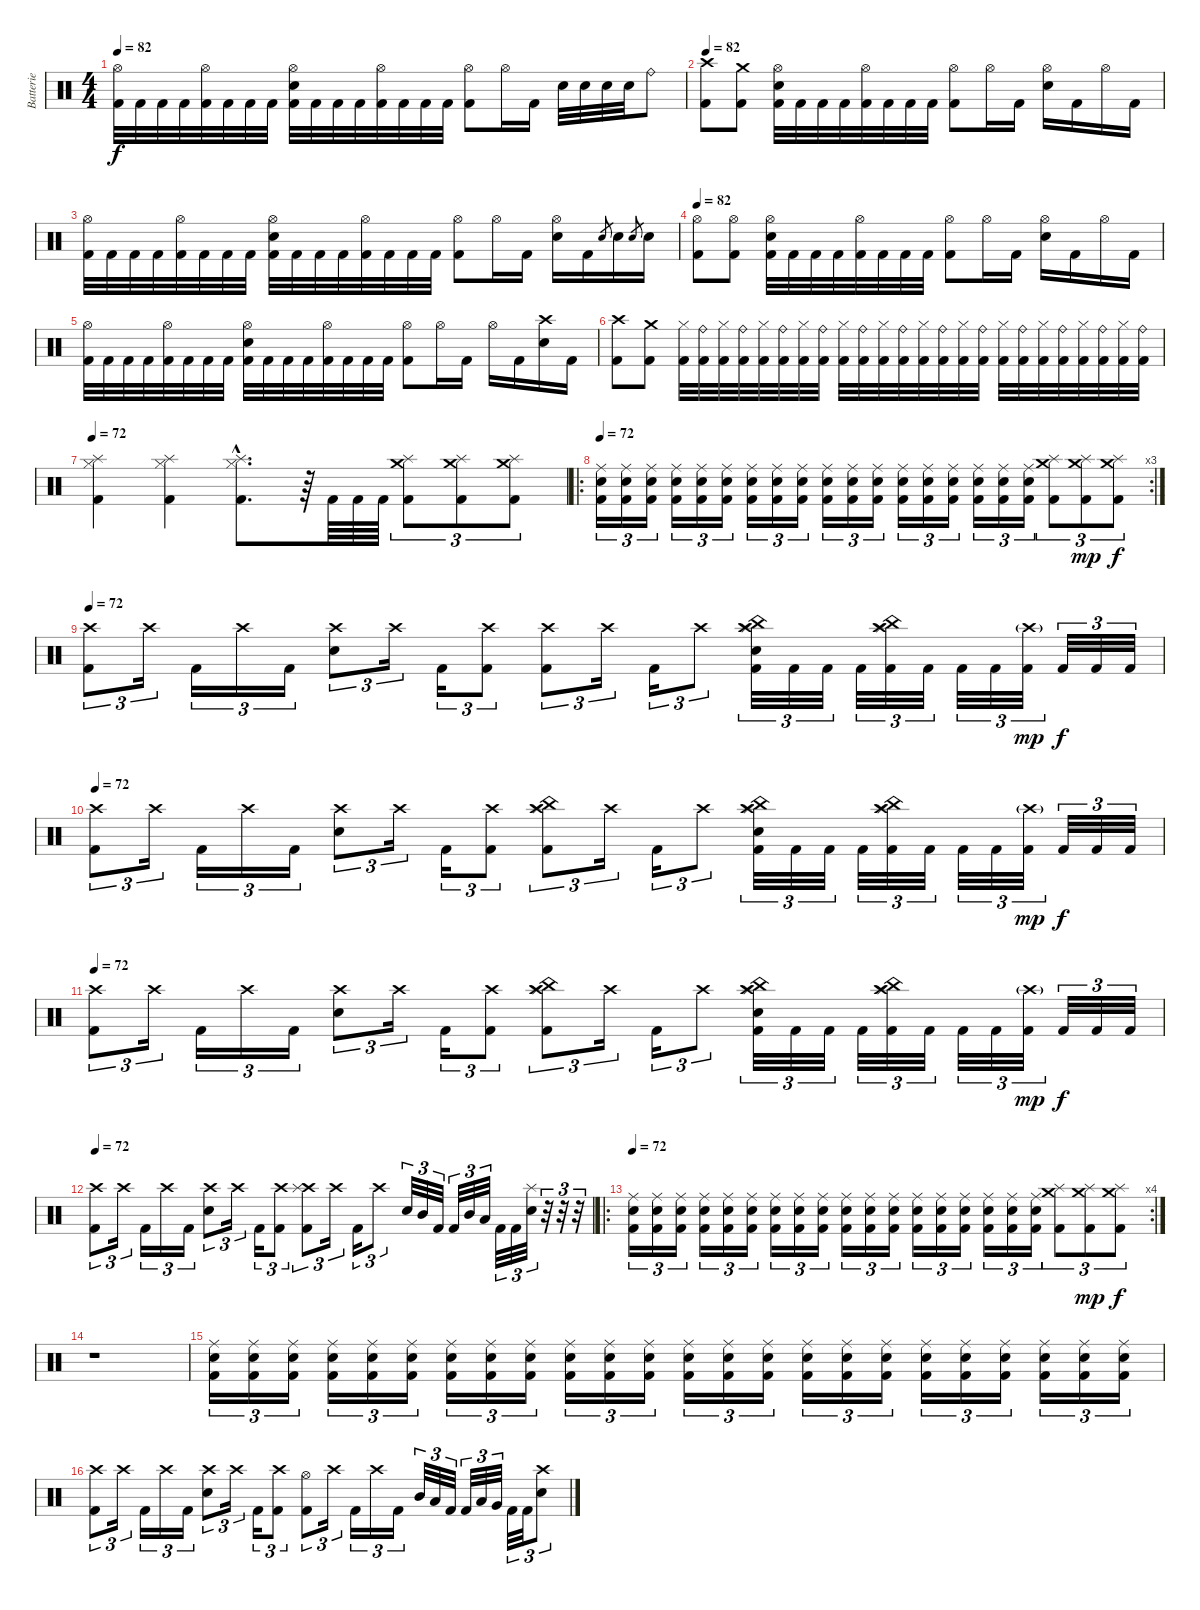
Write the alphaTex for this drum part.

\track ("Batterie" "Batterie") {instrument percussion}
\staff {score}
\articulation defaults
\ts (4 4)
\tempo 82
\clef neutral
\ks c
("Hi-Hat (open)" "Kick (hit) 2").32{dy f} "Kick (hit) 2".32 "Kick (hit) 2".32 "Kick (hit) 2".32 ("Hi-Hat (open)" "Kick (hit) 2").32 "Kick (hit) 2".32 "Kick (hit) 2".32 "Kick (hit) 2".32 ("Electric Snare (hit)" "Hi-Hat (open)" "Kick (hit) 2").32 "Kick (hit) 2".32 "Kick (hit) 2".32 "Kick (hit) 2".32 ("Hi-Hat (open)" "Kick (hit) 2").32 "Kick (hit) 2".32 "Kick (hit) 2".32 "Kick (hit) 2".32 ("Hi-Hat (open)" "Kick (hit) 2").8 "Hi-Hat (open)".16 "Kick (hit) 2".16 "Electric Snare (hit)".32 "Electric Snare (hit)".32 "Electric Snare (hit)".32 "Electric Snare (hit)".32 "Ride (bell)".8 |
\tempo 82
("Crash high (hit)" "Kick (hit) 2").8 ("Crash medium (hit)" "Kick (hit) 2").8 ("Hi-Hat (open)" "Electric Snare (hit)" "Kick (hit) 2").32 "Kick (hit) 2".32 "Kick (hit) 2".32 "Kick (hit) 2".32 ("Hi-Hat (open)" "Kick (hit) 2").32 "Kick (hit) 2".32 "Kick (hit) 2".32 "Kick (hit) 2".32 ("Hi-Hat (open)" "Kick (hit) 2").8 "Hi-Hat (open)".16 "Kick (hit) 2".16 ("Hi-Hat (open)" "Electric Snare (hit)").16 "Kick (hit) 2".16 "Hi-Hat (open)".16 "Kick (hit) 2".16 |
("Hi-Hat (open)" "Kick (hit) 2").32 "Kick (hit) 2".32 "Kick (hit) 2".32 "Kick (hit) 2".32 ("Hi-Hat (open)" "Kick (hit) 2").32 "Kick (hit) 2".32 "Kick (hit) 2".32 "Kick (hit) 2".32 ("Electric Snare (hit)" "Hi-Hat (open)" "Kick (hit) 2").32 "Kick (hit) 2".32 "Kick (hit) 2".32 "Kick (hit) 2".32 ("Hi-Hat (open)" "Kick (hit) 2").32 "Kick (hit) 2".32 "Kick (hit) 2".32 "Kick (hit) 2".32 ("Hi-Hat (open)" "Kick (hit) 2").8 "Hi-Hat (open)".16 "Kick (hit) 2".16 ("Hi-Hat (open)" "Electric Snare (hit)").16 "Kick (hit) 2".16 "Electric Snare (hit)".8{gr} "Electric Snare (hit)".16 "Electric Snare (hit)".8{gr} "Electric Snare (hit)".16 |
\tempo 82
("Hi-Hat (open)" "Kick (hit) 2").8 ("Hi-Hat (open)" "Kick (hit) 2").8 ("Hi-Hat (open)" "Electric Snare (hit)" "Kick (hit) 2").32 "Kick (hit) 2".32 "Kick (hit) 2".32 "Kick (hit) 2".32 ("Hi-Hat (open)" "Kick (hit) 2").32 "Kick (hit) 2".32 "Kick (hit) 2".32 "Kick (hit) 2".32 ("Hi-Hat (open)" "Kick (hit) 2").8 "Hi-Hat (open)".16 "Kick (hit) 2".16 ("Hi-Hat (open)" "Electric Snare (hit)").16 "Kick (hit) 2".16 "Hi-Hat (open)".16 "Kick (hit) 2".16 |
("Hi-Hat (open)" "Kick (hit) 2").32 "Kick (hit) 2".32 "Kick (hit) 2".32 "Kick (hit) 2".32 ("Hi-Hat (open)" "Kick (hit) 2").32 "Kick (hit) 2".32 "Kick (hit) 2".32 "Kick (hit) 2".32 ("Electric Snare (hit)" "Hi-Hat (open)" "Kick (hit) 2").32 "Kick (hit) 2".32 "Kick (hit) 2".32 "Kick (hit) 2".32 ("Hi-Hat (open)" "Kick (hit) 2").32 "Kick (hit) 2".32 "Kick (hit) 2".32 "Kick (hit) 2".32 ("Hi-Hat (open)" "Kick (hit) 2").8 "Hi-Hat (open)".16 "Kick (hit) 2".16 "Hi-Hat (open)".16 "Kick (hit) 2".16 ("Crash high (hit)" "Electric Snare (hit)").16 "Kick (hit) 2".16 |
("Crash high (hit)" "Kick (hit) 2").8 ("Crash medium (hit)" "Kick (hit) 2").8 ("Hi-Hat (closed)" "Kick (hit) 2").32 ("Ride (bell)" "Kick (hit) 2").32 ("Hi-Hat (closed)" "Kick (hit) 2").32 ("Ride (bell)" "Kick (hit) 2").32 ("Hi-Hat (closed)" "Kick (hit) 2").32 ("Ride (bell)" "Kick (hit) 2").32 ("Hi-Hat (closed)" "Kick (hit) 2").32 ("Ride (bell)" "Kick (hit) 2").32 ("Hi-Hat (closed)" "Kick (hit) 2").32 ("Ride (bell)" "Kick (hit) 2").32 ("Hi-Hat (closed)" "Kick (hit) 2").32 ("Ride (bell)" "Kick (hit) 2").32 ("Hi-Hat (closed)" "Kick (hit) 2").32 ("Ride (bell)" "Kick (hit) 2").32 ("Hi-Hat (closed)" "Kick (hit) 2").32 ("Ride (bell)" "Kick (hit) 2").32 ("Hi-Hat (closed)" "Kick (hit) 2").32 ("Ride (bell)" "Kick (hit) 2").32 ("Hi-Hat (closed)" "Kick (hit) 2").32 ("Ride (bell)" "Kick (hit) 2").32 ("Hi-Hat (closed)" "Kick (hit) 2").32 ("Ride (bell)" "Kick (hit) 2").32 ("Hi-Hat (closed)" "Kick (hit) 2").32 ("Ride (bell)" "Kick (hit) 2").32 |
\tempo 72
("Splash (hit)" "Hi-Hat (closed)" "Kick (hit) 2").4 ("Splash (hit)" "Hi-Hat (closed)" "Kick (hit) 2").4 ("Splash (hit)"{hac} "Hi-Hat (closed)"{hac} "Kick (hit) 2"{hac}).8{d} r.64 "Kick (hit) 2".64 "Kick (hit) 2".64 "Kick (hit) 2".64 ("Crash medium (hit)" "Splash (hit)" "Kick (hit) 2").8{tu (3 2)} ("Crash medium (hit)" "Splash (hit)" "Kick (hit) 2").8{tu (3 2)} ("Crash medium (hit)" "Splash (hit)" "Kick (hit) 2").8{tu (3 2)} |
\ro
\rc 3
\tempo 72
("Kick (hit) 2" "Ride (middle)" "Electric Snare (hit)").16{tu (3 2)} ("Kick (hit) 2" "Ride (middle)" "Electric Snare (hit)").16{tu (3 2)} ("Kick (hit) 2" "Ride (middle)" "Electric Snare (hit)").16{tu (3 2)} ("Kick (hit) 2" "Ride (middle)" "Electric Snare (hit)").16{tu (3 2)} ("Kick (hit) 2" "Ride (middle)" "Electric Snare (hit)").16{tu (3 2)} ("Kick (hit) 2" "Ride (middle)" "Electric Snare (hit)").16{tu (3 2)} ("Kick (hit) 2" "Ride (middle)" "Electric Snare (hit)").16{tu (3 2)} ("Kick (hit) 2" "Ride (middle)" "Electric Snare (hit)").16{tu (3 2)} ("Kick (hit) 2" "Ride (middle)" "Electric Snare (hit)").16{tu (3 2)} ("Kick (hit) 2" "Ride (middle)" "Electric Snare (hit)").16{tu (3 2)} ("Kick (hit) 2" "Ride (middle)" "Electric Snare (hit)").16{tu (3 2)} ("Kick (hit) 2" "Ride (middle)" "Electric Snare (hit)").16{tu (3 2)} ("Kick (hit) 2" "Ride (middle)" "Electric Snare (hit)").16{tu (3 2)} ("Kick (hit) 2" "Ride (middle)" "Electric Snare (hit)").16{tu (3 2)} ("Kick (hit) 2" "Ride (middle)" "Electric Snare (hit)").16{tu (3 2)} ("Kick (hit) 2" "Ride (middle)" "Electric Snare (hit)").16{tu (3 2)} ("Kick (hit) 2" "Ride (middle)" "Electric Snare (hit)").16{tu (3 2)} ("Kick (hit) 2" "Ride (middle)" "Electric Snare (hit)").16{tu (3 2)} ("Splash (hit)" "Crash medium (hit)" "Kick (hit) 2").8{tu (3 2)} ("Splash (hit)" "Crash medium (hit)" "Kick (hit) 2").8{tu (3 2) dy mp} ("Splash (hit)" "Crash medium (hit)" "Kick (hit) 2").8{tu (3 2) dy f} |
\tempo 72
("Crash high (hit)" "Kick (hit) 2").8{tu (3 2)} "Crash high (hit)".16{tu (3 2)} "Kick (hit) 2".16{tu (3 2)} "Crash high (hit)".16{tu (3 2)} "Kick (hit) 2".16{tu (3 2)} ("Crash high (hit)" "Electric Snare (hit)").8{tu (3 2)} "Crash high (hit)".16{tu (3 2)} "Kick (hit) 2".16{tu (3 2)} ("Crash high (hit)" "Kick (hit) 2").8{tu (3 2)} ("Crash high (hit)" "Kick (hit) 2").8{tu (3 2)} "Crash high (hit)".16{tu (3 2)} "Kick (hit) 2".16{tu (3 2)} "Crash high (hit)".8{tu (3 2)} ("China (hit)" "Crash high (hit)" "Splash (hit)" "Electric Snare (hit)" "Kick (hit) 2").32{tu (3 2)} "Kick (hit) 2".32{tu (3 2)} "Kick (hit) 2".32{tu (3 2)} "Kick (hit) 2".32{tu (3 2)} ("China (hit)" "Crash high (hit)" "Splash (hit)" "Kick (hit) 2").32{tu (3 2)} "Kick (hit) 2".32{tu (3 2)} "Kick (hit) 2".32{tu (3 2)} "Kick (hit) 2".32{tu (3 2)} ("Crash high (hit)"{g} "Kick (hit) 2").32{tu (3 2) dy mp} "Kick (hit) 2".32{tu (3 2) dy f} "Kick (hit) 2".32{tu (3 2)} "Kick (hit) 2".32{tu (3 2)} |
\tempo 72
("Crash high (hit)" "Kick (hit) 2").8{tu (3 2)} "Crash high (hit)".16{tu (3 2)} "Kick (hit) 2".16{tu (3 2)} "Crash high (hit)".16{tu (3 2)} "Kick (hit) 2".16{tu (3 2)} ("Crash high (hit)" "Electric Snare (hit)").8{tu (3 2)} "Crash high (hit)".16{tu (3 2)} "Kick (hit) 2".16{tu (3 2)} ("Crash high (hit)" "Kick (hit) 2").8{tu (3 2)} ("China (hit)" "Crash high (hit)" "Splash (hit)" "Kick (hit) 2").8{tu (3 2)} "Crash high (hit)".16{tu (3 2)} "Kick (hit) 2".16{tu (3 2)} "Crash high (hit)".8{tu (3 2)} ("China (hit)" "Crash high (hit)" "Splash (hit)" "Electric Snare (hit)" "Kick (hit) 2").32{tu (3 2)} "Kick (hit) 2".32{tu (3 2)} "Kick (hit) 2".32{tu (3 2)} "Kick (hit) 2".32{tu (3 2)} ("China (hit)" "Crash high (hit)" "Splash (hit)" "Kick (hit) 2").32{tu (3 2)} "Kick (hit) 2".32{tu (3 2)} "Kick (hit) 2".32{tu (3 2)} "Kick (hit) 2".32{tu (3 2)} ("Crash high (hit)"{g} "Kick (hit) 2").32{tu (3 2) dy mp} "Kick (hit) 2".32{tu (3 2) dy f} "Kick (hit) 2".32{tu (3 2)} "Kick (hit) 2".32{tu (3 2)} |
\tempo 72
("Crash high (hit)" "Kick (hit) 2").8{tu (3 2)} "Crash high (hit)".16{tu (3 2)} "Kick (hit) 2".16{tu (3 2)} "Crash high (hit)".16{tu (3 2)} "Kick (hit) 2".16{tu (3 2)} ("Crash high (hit)" "Electric Snare (hit)").8{tu (3 2)} "Crash high (hit)".16{tu (3 2)} "Kick (hit) 2".16{tu (3 2)} ("Crash high (hit)" "Kick (hit) 2").8{tu (3 2)} ("China (hit)" "Crash high (hit)" "Splash (hit)" "Kick (hit) 2").8{tu (3 2)} "Crash high (hit)".16{tu (3 2)} "Kick (hit) 2".16{tu (3 2)} "Crash high (hit)".8{tu (3 2)} ("China (hit)" "Crash high (hit)" "Splash (hit)" "Electric Snare (hit)" "Kick (hit) 2").32{tu (3 2)} "Kick (hit) 2".32{tu (3 2)} "Kick (hit) 2".32{tu (3 2)} "Kick (hit) 2".32{tu (3 2)} ("China (hit)" "Crash high (hit)" "Splash (hit)" "Kick (hit) 2").32{tu (3 2)} "Kick (hit) 2".32{tu (3 2)} "Kick (hit) 2".32{tu (3 2)} "Kick (hit) 2".32{tu (3 2)} ("Crash high (hit)"{g} "Kick (hit) 2").32{tu (3 2) dy mp} "Kick (hit) 2".32{tu (3 2) dy f} "Kick (hit) 2".32{tu (3 2)} "Kick (hit) 2".32{tu (3 2)} |
\tempo 72
("Crash high (hit)" "Kick (hit) 2").8{tu (3 2)} "Crash high (hit)".16{tu (3 2)} "Kick (hit) 2".16{tu (3 2)} "Crash high (hit)".16{tu (3 2)} "Kick (hit) 2".16{tu (3 2)} ("Crash high (hit)" "Electric Snare (hit)").8{tu (3 2)} "Crash high (hit)".16{tu (3 2)} "Kick (hit) 2".16{tu (3 2)} ("Crash high (hit)" "Kick (hit) 2").8{tu (3 2)} ("Crash high (hit)" "Splash (hit)" "Kick (hit) 2").8{tu (3 2)} "Crash high (hit)".16{tu (3 2)} "Kick (hit) 2".16{tu (3 2)} "Crash high (hit)".8{tu (3 2)} "Electric Snare (hit)".32{tu (3 2)} "Mid Tom (hit)".32{tu (3 2)} "Kick (hit) 2".32{tu (3 2)} "Kick (hit) 2".32{tu (3 2)} "Mid Tom (hit)".32{tu (3 2)} "Low Tom (hit)".32{tu (3 2)} "Kick (hit) 2".32{tu (3 2)} "Kick (hit) 2".32{tu (3 2)} ("Splash (hit)" "Electric Snare (hit)").32{tu (3 2)} r.32{tu (3 2)} r.32{tu (3 2)} r.32{tu (3 2)} |
\ro
\rc 4
\tempo 72
("Kick (hit) 2" "Ride (middle)" "Electric Snare (hit)").16{tu (3 2)} ("Kick (hit) 2" "Ride (middle)" "Electric Snare (hit)").16{tu (3 2)} ("Kick (hit) 2" "Ride (middle)" "Electric Snare (hit)").16{tu (3 2)} ("Kick (hit) 2" "Ride (middle)" "Electric Snare (hit)").16{tu (3 2)} ("Kick (hit) 2" "Ride (middle)" "Electric Snare (hit)").16{tu (3 2)} ("Kick (hit) 2" "Ride (middle)" "Electric Snare (hit)").16{tu (3 2)} ("Kick (hit) 2" "Ride (middle)" "Electric Snare (hit)").16{tu (3 2)} ("Kick (hit) 2" "Ride (middle)" "Electric Snare (hit)").16{tu (3 2)} ("Kick (hit) 2" "Ride (middle)" "Electric Snare (hit)").16{tu (3 2)} ("Kick (hit) 2" "Ride (middle)" "Electric Snare (hit)").16{tu (3 2)} ("Kick (hit) 2" "Ride (middle)" "Electric Snare (hit)").16{tu (3 2)} ("Kick (hit) 2" "Ride (middle)" "Electric Snare (hit)").16{tu (3 2)} ("Kick (hit) 2" "Ride (middle)" "Electric Snare (hit)").16{tu (3 2)} ("Kick (hit) 2" "Ride (middle)" "Electric Snare (hit)").16{tu (3 2)} ("Kick (hit) 2" "Ride (middle)" "Electric Snare (hit)").16{tu (3 2)} ("Kick (hit) 2" "Ride (middle)" "Electric Snare (hit)").16{tu (3 2)} ("Kick (hit) 2" "Ride (middle)" "Electric Snare (hit)").16{tu (3 2)} ("Kick (hit) 2" "Ride (middle)" "Electric Snare (hit)").16{tu (3 2)} ("Splash (hit)" "Crash medium (hit)" "Kick (hit) 2").8{tu (3 2)} ("Splash (hit)" "Crash medium (hit)" "Kick (hit) 2").8{tu (3 2) dy mp} ("Splash (hit)" "Crash medium (hit)" "Kick (hit) 2").8{tu (3 2) dy f} |
r.1 |
("Kick (hit) 2" "Ride (middle)" "Electric Snare (hit)").16{tu (3 2)} ("Kick (hit) 2" "Ride (middle)" "Electric Snare (hit)").16{tu (3 2)} ("Kick (hit) 2" "Ride (middle)" "Electric Snare (hit)").16{tu (3 2)} ("Kick (hit) 2" "Ride (middle)" "Electric Snare (hit)").16{tu (3 2)} ("Kick (hit) 2" "Ride (middle)" "Electric Snare (hit)").16{tu (3 2)} ("Kick (hit) 2" "Ride (middle)" "Electric Snare (hit)").16{tu (3 2)} ("Kick (hit) 2" "Ride (middle)" "Electric Snare (hit)").16{tu (3 2)} ("Kick (hit) 2" "Ride (middle)" "Electric Snare (hit)").16{tu (3 2)} ("Kick (hit) 2" "Ride (middle)" "Electric Snare (hit)").16{tu (3 2)} ("Kick (hit) 2" "Ride (middle)" "Electric Snare (hit)").16{tu (3 2)} ("Kick (hit) 2" "Ride (middle)" "Electric Snare (hit)").16{tu (3 2)} ("Kick (hit) 2" "Ride (middle)" "Electric Snare (hit)").16{tu (3 2)} ("Kick (hit) 2" "Ride (middle)" "Electric Snare (hit)").16{tu (3 2)} ("Kick (hit) 2" "Ride (middle)" "Electric Snare (hit)").16{tu (3 2)} ("Kick (hit) 2" "Ride (middle)" "Electric Snare (hit)").16{tu (3 2)} ("Kick (hit) 2" "Ride (middle)" "Electric Snare (hit)").16{tu (3 2)} ("Kick (hit) 2" "Ride (middle)" "Electric Snare (hit)").16{tu (3 2)} ("Kick (hit) 2" "Ride (middle)" "Electric Snare (hit)").16{tu (3 2)} ("Electric Snare (hit)" "Ride (middle)" "Kick (hit) 2").16{tu (3 2)} ("Electric Snare (hit)" "Ride (middle)" "Kick (hit) 2").16{tu (3 2)} ("Electric Snare (hit)" "Ride (middle)" "Kick (hit) 2").16{tu (3 2)} ("Electric Snare (hit)" "Ride (middle)" "Kick (hit) 2").16{tu (3 2)} ("Electric Snare (hit)" "Ride (middle)" "Kick (hit) 2").16{tu (3 2)} ("Electric Snare (hit)" "Ride (middle)" "Kick (hit) 2").16{tu (3 2)} |
("Kick (hit) 2" "Crash high (hit)").8{tu (3 2)} "Crash high (hit)".16{tu (3 2)} "Kick (hit) 2".16{tu (3 2)} "Crash high (hit)".16{tu (3 2)} "Kick (hit) 2".16{tu (3 2)} ("Crash high (hit)" "Electric Snare (hit)").8{tu (3 2)} "Crash high (hit)".16{tu (3 2)} "Kick (hit) 2".16{tu (3 2)} ("Crash high (hit)" "Kick (hit) 2").8{tu (3 2)} ("Hi-Hat (open)" "Kick (hit) 2").8{tu (3 2)} "Crash high (hit)".16{tu (3 2)} "Kick (hit) 2".16{tu (3 2)} "Crash high (hit)".16{tu (3 2)} "Kick (hit) 2".16{tu (3 2)} "Mid Tom (hit)".32{tu (3 2)} "Low Tom (hit)".32{tu (3 2)} "Kick (hit) 2".32{tu (3 2)} "Kick (hit) 2".32{tu (3 2)} "Low Tom (hit)".32{tu (3 2)} "Very Low Tom (hit)".32{tu (3 2)} "Kick (hit) 2".32{tu (3 2)} "Kick (hit) 2".32{tu (3 2)} ("Crash high (hit)" "Electric Snare (hit)").8{tu (3 2)}
